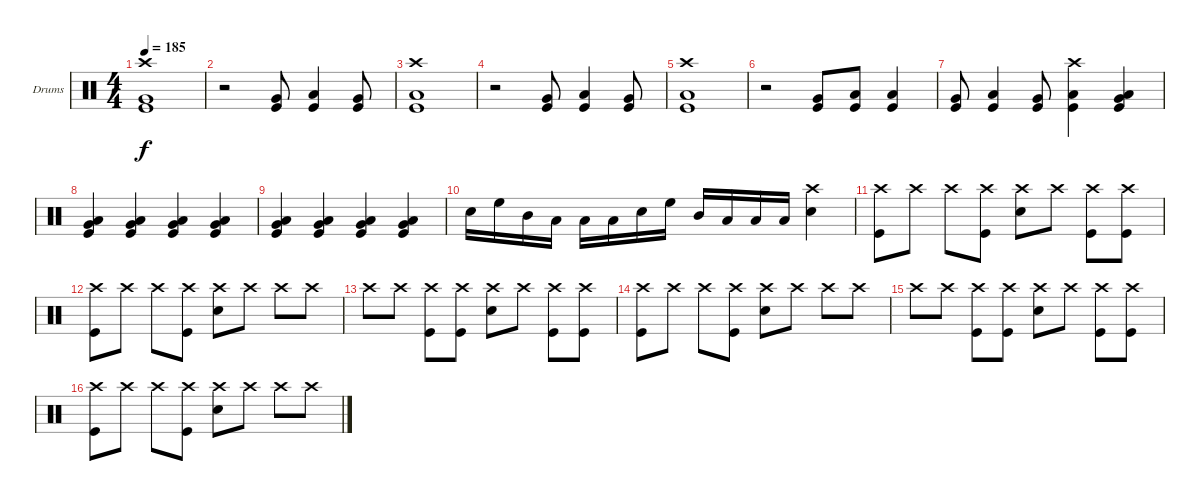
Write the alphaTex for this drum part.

\defaultSystemsLayout 4
\bracketExtendMode nobrackets
\firstSystemTrackNameOrientation horizontal
\otherSystemsTrackNameOrientation horizontal
\track ("Drumkit" "Drums") {instrument percussion}
\staff {score}
\articulation defaults
\ts (4 4)
\tempo 185
\clef neutral
\ks c
("Crash high (hit)" "Very Low Tom (hit)" "Kick (hit)").1{dy f} |
r.2 ("Very Low Tom (hit)" "Kick (hit)").8 ("Low Tom (hit)" "Kick (hit)").4 ("Very Low Tom (hit)" "Kick (hit)").8 |
("Crash high (hit)" "Low Tom (hit)" "Kick (hit)").1 |
r.2 ("Very Low Tom (hit)" "Kick (hit)").8 ("Low Tom (hit)" "Kick (hit)").4 ("Very Low Tom (hit)" "Kick (hit)").8 |
("Crash high (hit)" "Low Tom (hit)" "Kick (hit)").1 |
r.2 ("Very Low Tom (hit)" "Kick (hit)").8 ("Low Tom (hit)" "Kick (hit)").8 ("Low Tom (hit)" "Kick (hit)").4 |
("Very Low Tom (hit)" "Kick (hit)").8 ("Low Tom (hit)" "Kick (hit)").4 ("Very Low Tom (hit)" "Kick (hit)").8 ("Crash high (hit)" "Low Tom (hit)" "Kick (hit)").4 ("Low Tom (hit)" "Very Low Tom (hit)" "Kick (hit)").4 |
("Low Tom (hit)" "Very Low Tom (hit)" "Kick (hit)").4 ("Low Tom (hit)" "Very Low Tom (hit)" "Kick (hit)").4 ("Low Tom (hit)" "Very Low Tom (hit)" "Kick (hit)").4 ("Low Tom (hit)" "Very Low Tom (hit)" "Kick (hit)").4 |
("Low Tom (hit)" "Very Low Tom (hit)" "Kick (hit)").4 ("Low Tom (hit)" "Very Low Tom (hit)" "Kick (hit)").4 ("Low Tom (hit)" "Very Low Tom (hit)" "Kick (hit)").4 ("Low Tom (hit)" "Very Low Tom (hit)" "Kick (hit)").4 |
"Snare (hit) 2".16 "High Floor Tom (hit)".16 "Mid Tom (hit)".16 "Low Tom (hit)".16 "Low Tom (hit)".16 "Low Tom (hit)".16 "Snare (hit) 2".16 "High Floor Tom (hit)".16 "Mid Tom (hit)".16 "Low Tom (hit)".16 "Low Tom (hit)".16 "Low Tom (hit)".16 ("Crash high (hit)" "Snare (hit) 2").4 |
("Crash high (hit)" "Kick (hit)").8 "Crash high (hit)".8 "Crash high (hit)".8 ("Crash high (hit)" "Kick (hit)").8 ("Crash high (hit)" "Snare (hit) 2").8 "Crash high (hit)".8 ("Crash high (hit)" "Kick (hit)").8 ("Crash high (hit)" "Kick (hit)").8 |
("Crash high (hit)" "Kick (hit)").8 "Crash high (hit)".8 "Crash high (hit)".8 ("Crash high (hit)" "Kick (hit)").8 ("Crash high (hit)" "Snare (hit) 2").8 "Crash high (hit)".8 "Crash high (hit)".8 "Crash high (hit)".8 |
"Crash high (hit)".8 "Crash high (hit)".8 ("Crash high (hit)" "Kick (hit)").8 ("Crash high (hit)" "Kick (hit)").8 ("Crash high (hit)" "Snare (hit) 2").8 "Crash high (hit)".8 ("Crash high (hit)" "Kick (hit)").8 ("Crash high (hit)" "Kick (hit)").8 |
("Crash high (hit)" "Kick (hit)").8 "Crash high (hit)".8 "Crash high (hit)".8 ("Crash high (hit)" "Kick (hit)").8 ("Crash high (hit)" "Snare (hit) 2").8 "Crash high (hit)".8 "Crash high (hit)".8 "Crash high (hit)".8 |
"Crash high (hit)".8 "Crash high (hit)".8 ("Crash high (hit)" "Kick (hit)").8 ("Crash high (hit)" "Kick (hit)").8 ("Crash high (hit)" "Snare (hit) 2").8 "Crash high (hit)".8 ("Crash high (hit)" "Kick (hit)").8 ("Crash high (hit)" "Kick (hit)").8 |
("Crash high (hit)" "Kick (hit)").8 "Crash high (hit)".8 "Crash high (hit)".8 ("Crash high (hit)" "Kick (hit)").8 ("Crash high (hit)" "Snare (hit) 2").8 "Crash high (hit)".8 "Crash high (hit)".8 "Crash high (hit)".8
